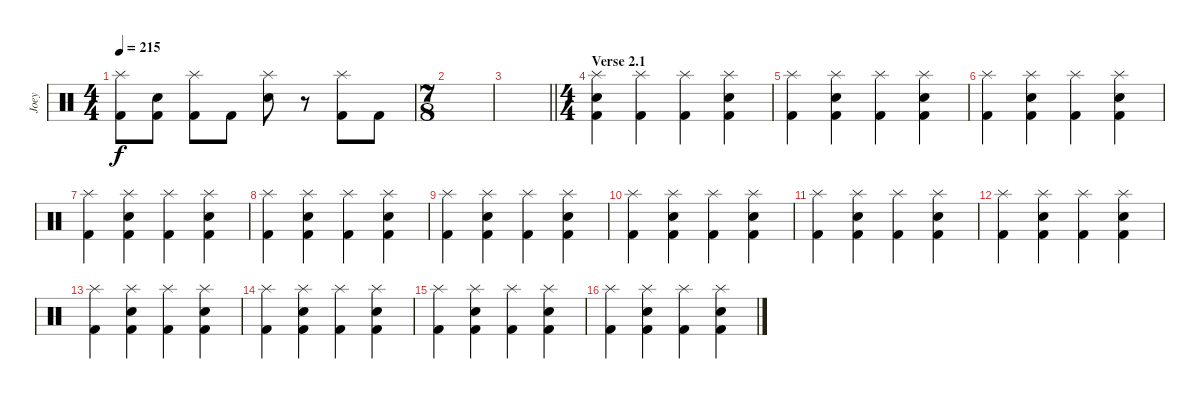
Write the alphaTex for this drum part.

\track ("Joey" "Joey") {instrument percussion}
\staff {score}
\articulation defaults
\ts (4 4)
\tempo 215
\clef neutral
\ks c
("Splash (hit)" "Kick (hit) 2").8{dy f} ("Electric Snare (hit)" "Kick (hit) 2").8 ("Splash (hit)" "Kick (hit) 2").8 "Kick (hit) 2".8 ("Splash (hit)" "Electric Snare (hit)").8 r.8 ("Splash (hit)" "Kick (hit) 2").8 "Kick (hit) 2".8 |
\ts (7 8)
|
\barLineRight lightlight
|
\ts (4 4)
\section ("" "Verse 2.1")
("Splash (hit)" "Electric Snare (hit)" "Kick (hit) 2").4 ("Splash (hit)" "Kick (hit) 2").4 ("Splash (hit)" "Kick (hit) 2").4 ("Splash (hit)" "Electric Snare (hit)" "Kick (hit) 2").4 |
("Splash (hit)" "Kick (hit) 2").4 ("Splash (hit)" "Electric Snare (hit)" "Kick (hit) 2").4 ("Splash (hit)" "Kick (hit) 2").4 ("Splash (hit)" "Electric Snare (hit)" "Kick (hit) 2").4 |
("Splash (hit)" "Kick (hit) 2").4 ("Splash (hit)" "Electric Snare (hit)" "Kick (hit) 2").4 ("Splash (hit)" "Kick (hit) 2").4 ("Splash (hit)" "Electric Snare (hit)" "Kick (hit) 2").4 |
("Splash (hit)" "Kick (hit) 2").4 ("Splash (hit)" "Electric Snare (hit)" "Kick (hit) 2").4 ("Splash (hit)" "Kick (hit) 2").4 ("Splash (hit)" "Electric Snare (hit)" "Kick (hit) 2").4 |
("Splash (hit)" "Kick (hit) 2").4 ("Splash (hit)" "Electric Snare (hit)" "Kick (hit) 2").4 ("Splash (hit)" "Kick (hit) 2").4 ("Splash (hit)" "Electric Snare (hit)" "Kick (hit) 2").4 |
("Splash (hit)" "Kick (hit) 2").4 ("Splash (hit)" "Electric Snare (hit)" "Kick (hit) 2").4 ("Splash (hit)" "Kick (hit) 2").4 ("Splash (hit)" "Electric Snare (hit)" "Kick (hit) 2").4 |
("Splash (hit)" "Kick (hit) 2").4 ("Splash (hit)" "Electric Snare (hit)" "Kick (hit) 2").4 ("Splash (hit)" "Kick (hit) 2").4 ("Splash (hit)" "Electric Snare (hit)" "Kick (hit) 2").4 |
("Splash (hit)" "Kick (hit) 2").4 ("Splash (hit)" "Electric Snare (hit)" "Kick (hit) 2").4 ("Splash (hit)" "Kick (hit) 2").4 ("Splash (hit)" "Electric Snare (hit)" "Kick (hit) 2").4 |
("Splash (hit)" "Kick (hit) 2").4 ("Splash (hit)" "Electric Snare (hit)" "Kick (hit) 2").4 ("Splash (hit)" "Kick (hit) 2").4 ("Splash (hit)" "Electric Snare (hit)" "Kick (hit) 2").4 |
("Splash (hit)" "Kick (hit) 2").4 ("Splash (hit)" "Electric Snare (hit)" "Kick (hit) 2").4 ("Splash (hit)" "Kick (hit) 2").4 ("Splash (hit)" "Electric Snare (hit)" "Kick (hit) 2").4 |
("Splash (hit)" "Kick (hit) 2").4 ("Splash (hit)" "Electric Snare (hit)" "Kick (hit) 2").4 ("Splash (hit)" "Kick (hit) 2").4 ("Splash (hit)" "Electric Snare (hit)" "Kick (hit) 2").4 |
("Splash (hit)" "Kick (hit) 2").4 ("Splash (hit)" "Electric Snare (hit)" "Kick (hit) 2").4 ("Splash (hit)" "Kick (hit) 2").4 ("Splash (hit)" "Electric Snare (hit)" "Kick (hit) 2").4 |
("Splash (hit)" "Kick (hit) 2").4 ("Splash (hit)" "Electric Snare (hit)" "Kick (hit) 2").4 ("Splash (hit)" "Kick (hit) 2").4 ("Splash (hit)" "Electric Snare (hit)" "Kick (hit) 2").4
